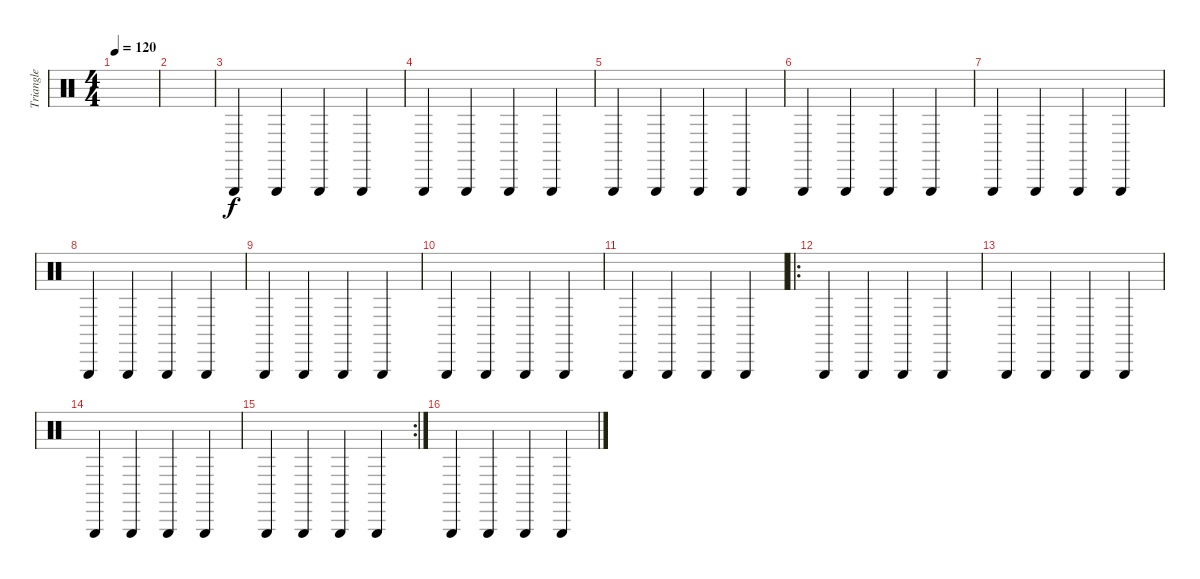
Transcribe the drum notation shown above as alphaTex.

\track ("Triangle" "Triangle") {instrument percussion}
\staff {score}
\articulation defaults
\ts (4 4)
\tempo 120
\clef neutral
\ks c
|
|
"Triangle (hit)".4 "Triangle (hit)".4 "Triangle (hit)".4 "Triangle (hit)".4 |
"Triangle (hit)".4 "Triangle (hit)".4 "Triangle (hit)".4 "Triangle (hit)".4 |
"Triangle (hit)".4 "Triangle (hit)".4 "Triangle (hit)".4 "Triangle (hit)".4 |
"Triangle (hit)".4 "Triangle (hit)".4 "Triangle (hit)".4 "Triangle (hit)".4 |
"Triangle (hit)".4 "Triangle (hit)".4 "Triangle (hit)".4 "Triangle (hit)".4 |
"Triangle (hit)".4 "Triangle (hit)".4 "Triangle (hit)".4 "Triangle (hit)".4 |
"Triangle (hit)".4 "Triangle (hit)".4 "Triangle (hit)".4 "Triangle (hit)".4 |
"Triangle (hit)".4 "Triangle (hit)".4 "Triangle (hit)".4 "Triangle (hit)".4 |
"Triangle (hit)".4 "Triangle (hit)".4 "Triangle (hit)".4 "Triangle (hit)".4 |
\ro "Triangle (hit)".4 "Triangle (hit)".4 "Triangle (hit)".4 "Triangle (hit)".4
|
"Triangle (hit)".4 "Triangle (hit)".4 "Triangle (hit)".4 "Triangle (hit)".4 |
"Triangle (hit)".4 "Triangle (hit)".4 "Triangle (hit)".4 "Triangle (hit)".4 |
\rc 2 "Triangle (hit)".4 "Triangle (hit)".4 "Triangle (hit)".4 "Triangle (hit)".4
|
"Triangle (hit)".4 "Triangle (hit)".4 "Triangle (hit)".4 "Triangle (hit)".4
